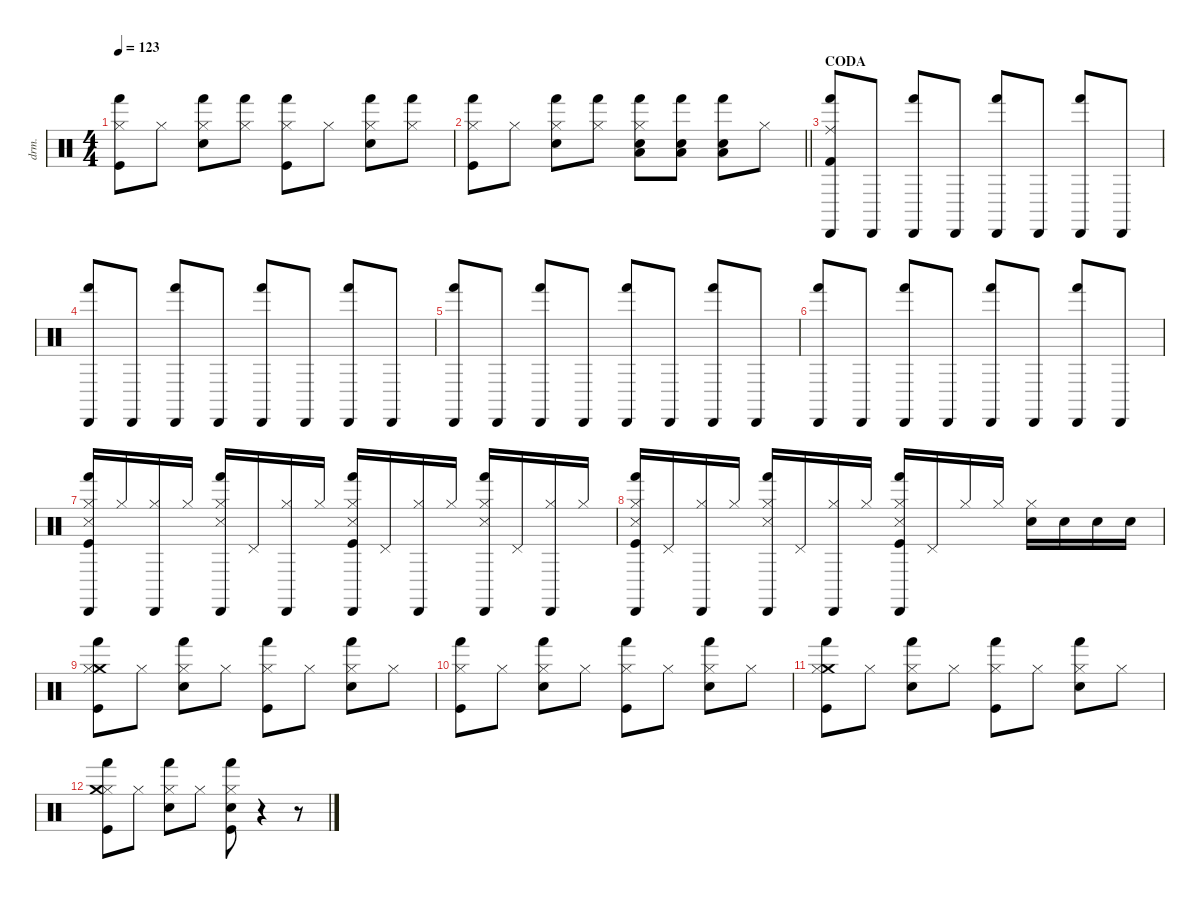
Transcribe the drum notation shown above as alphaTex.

\defaultSystemsLayout 4
\hideDynamics
\bracketExtendMode nobrackets
\otherSystemsTrackNameOrientation horizontal
\track ("Drums" "drm.") {defaultSystemsLayout 4 instrument percussion}
\staff {score}
\articulation defaults
\ts (4 4)
\tempo 123
\clef neutral
\ks c
("Hand (hit)" "Kick (hit)" "Hi-Hat (closed)").8{dy fff beam Down} "Hi-Hat (closed)".8{beam Down} ("Snare (hit) 2" "Hand (hit)" "Hi-Hat (closed)").8{beam Down} ("Hand (hit)" "Hi-Hat (closed)").8{beam Down} ("Hi-Hat (closed)" "Hand (hit)" "Kick (hit)").8{beam Down} "Hi-Hat (closed)".8{beam Down} ("Snare (hit) 2" "Hand (hit)" "Hi-Hat (closed)").8{beam Down} ("Hi-Hat (closed)" "Hand (hit)").8{beam Down} |
\barLineRight lightlight
("Hi-Hat (closed)" "Kick (hit)" "Hand (hit)").8{beam Down} "Hi-Hat (closed)".8{beam Down} ("Hi-Hat (closed)" "Hand (hit)" "Snare (hit) 2").8{beam Down} ("Hand (hit)" "Hi-Hat (closed)").8{beam Down} ("Snare (hit) 2" "Hi-Hat (closed)" "Low Tom (hit)" "Hand (hit)").8{beam Down} ("Low Tom (hit)" "Snare (hit) 2" "Hand (hit)").8{beam Down} ("Hand (hit)" "Low Tom (hit)" "Snare (hit) 2").8{beam Down} "Hi-Hat (closed)".8{beam Down} |
\section ("" "CODA")
("Ride (middle)" "Kick (hit) 2" "Hand (hit)" "Cabasa (hit)").8{beam Up} "Cabasa (hit)".8{dy mf beam Up} ("Hand (hit)" "Cabasa (hit)").8{beam Up} "Cabasa (hit)".8{beam Up} ("Hand (hit)" "Cabasa (hit)").8{beam Up} "Cabasa (hit)".8{beam Up} ("Hand (hit)" "Cabasa (hit)").8{beam Up} "Cabasa (hit)".8{beam Up} |
("Hand (hit)" "Cabasa (hit)").8{beam Up} "Cabasa (hit)".8{beam Up} ("Hand (hit)" "Cabasa (hit)").8{beam Up} "Cabasa (hit)".8{beam Up} ("Hand (hit)" "Cabasa (hit)").8{beam Up} "Cabasa (hit)".8{beam Up} ("Hand (hit)" "Cabasa (hit)").8{beam Up} "Cabasa (hit)".8{beam Up} |
("Hand (hit)" "Cabasa (hit)").8{beam Up} "Cabasa (hit)".8{beam Up} ("Hand (hit)" "Cabasa (hit)").8{beam Up} "Cabasa (hit)".8{beam Up} ("Hand (hit)" "Cabasa (hit)").8{beam Up} "Cabasa (hit)".8{beam Up} ("Hand (hit)" "Cabasa (hit)").8{beam Up} "Cabasa (hit)".8{beam Up} |
("Hand (hit)" "Cabasa (hit)").8{beam Up} "Cabasa (hit)".8{beam Up} ("Hand (hit)" "Cabasa (hit)").8{beam Up} "Cabasa (hit)".8{beam Up} ("Hand (hit)" "Cabasa (hit)").8{beam Up} "Cabasa (hit)".8{beam Up} ("Hand (hit)" "Cabasa (hit)").8{beam Up} "Cabasa (hit)".8{beam Up} |
("Hi-Hat (closed)" "Cabasa (hit)" "Snare (side stick) 3" "Hand (hit)" "Kick (hit)").16{beam Up} "Hi-Hat (closed)".16{beam Up} ("Hi-Hat (closed)" "Cabasa (hit)").16{beam Up} "Hi-Hat (closed)".16{beam Up} ("Cabasa (hit)" "Hand (hit)" "Snare (side stick) 3" "Hi-Hat (closed)").16{beam Up} "Pedal Hi-Hat (hit)".16{beam Up} ("Cabasa (hit)" "Hi-Hat (closed)").16{beam Up} "Hi-Hat (closed)".16{beam Up} ("Cabasa (hit)" "Hand (hit)" "Hi-Hat (closed)" "Kick (hit)" "Snare (side stick) 3").16{beam Up} "Pedal Hi-Hat (hit)".16{beam Up} ("Hi-Hat (closed)" "Cabasa (hit)").16{beam Up} "Hi-Hat (closed)".16{beam Up} ("Hand (hit)" "Snare (side stick) 3" "Hi-Hat (closed)" "Cabasa (hit)").16{beam Up} "Pedal Hi-Hat (hit)".16{beam Up} ("Cabasa (hit)" "Hi-Hat (closed)").16{beam Up} "Hi-Hat (closed)".16{beam Up} |
("Hand (hit)" "Kick (hit)" "Cabasa (hit)" "Snare (side stick) 3" "Hi-Hat (closed)").16{beam Up} "Pedal Hi-Hat (hit)".16{beam Up} ("Cabasa (hit)" "Hi-Hat (closed)").16{beam Up} "Hi-Hat (closed)".16{beam Up} ("Hand (hit)" "Snare (side stick) 3" "Cabasa (hit)" "Hi-Hat (closed)").16{beam Up} "Pedal Hi-Hat (hit)".16{beam Up} ("Cabasa (hit)" "Hi-Hat (closed)").16{beam Up} "Hi-Hat (closed)".16{beam Up} ("Cabasa (hit)" "Hand (hit)" "Snare (side stick) 3" "Kick (hit)" "Hi-Hat (closed)").16{beam Up} "Pedal Hi-Hat (hit)".16{beam Up} "Hi-Hat (closed)".16{beam Up} "Hi-Hat (closed)".16{beam Up} ("Snare (hit) 2" "Hi-Hat (closed)").16{dy fff beam Down} "Snare (hit) 2".16{beam Down} "Snare (hit) 2".16{beam Down} "Snare (hit) 2".16{beam Down} |
("Crash medium (hit)" "Hi-Hat (closed)" "Hand (hit)" "Kick (hit)").8{beam Down} "Hi-Hat (closed)".8{beam Down} ("Snare (hit) 2" "Hi-Hat (closed)" "Hand (hit)").8{beam Down} "Hi-Hat (closed)".8{beam Down} ("Kick (hit)" "Hi-Hat (closed)" "Hand (hit)").8{beam Down} "Hi-Hat (closed)".8{beam Down} ("Snare (hit) 2" "Hi-Hat (closed)" "Hand (hit)").8{beam Down} "Hi-Hat (closed)".8{beam Down} |
("Hi-Hat (closed)" "Kick (hit)" "Hand (hit)").8{beam Down} "Hi-Hat (closed)".8{beam Down} ("Hand (hit)" "Hi-Hat (closed)" "Snare (hit) 2").8{beam Down} "Hi-Hat (closed)".8{beam Down} ("Hi-Hat (closed)" "Hand (hit)" "Kick (hit)").8{beam Down} "Hi-Hat (closed)".8{beam Down} ("Hand (hit)" "Snare (hit) 2" "Hi-Hat (closed)").8{beam Down} "Hi-Hat (closed)".8{beam Down} |
("Crash medium (hit)" "Kick (hit)" "Hand (hit)" "Hi-Hat (closed)").8{beam Down} "Hi-Hat (closed)".8{beam Down} ("Hand (hit)" "Snare (hit) 2" "Hi-Hat (closed)").8{beam Down} "Hi-Hat (closed)".8{beam Down} ("Hand (hit)" "Kick (hit)" "Hi-Hat (closed)").8{beam Down} "Hi-Hat (closed)".8{beam Down} ("Snare (hit) 2" "Hand (hit)" "Hi-Hat (closed)").8{beam Down} "Hi-Hat (closed)".8{beam Down} |
("Hi-Hat (closed)" "Kick (hit)" "Crash medium (hit)" "Hand (hit)").8{beam Down} "Hi-Hat (closed)".8{beam Down} ("Snare (hit) 2" "Hi-Hat (closed)" "Hand (hit)").8{beam Down} "Hi-Hat (closed)".8{beam Down} ("Hi-Hat (closed)" "Hand (hit)" "Snare (hit) 2" "Kick (hit)").8{beam Down} r.4{beam Down} r.8{beam Down}
